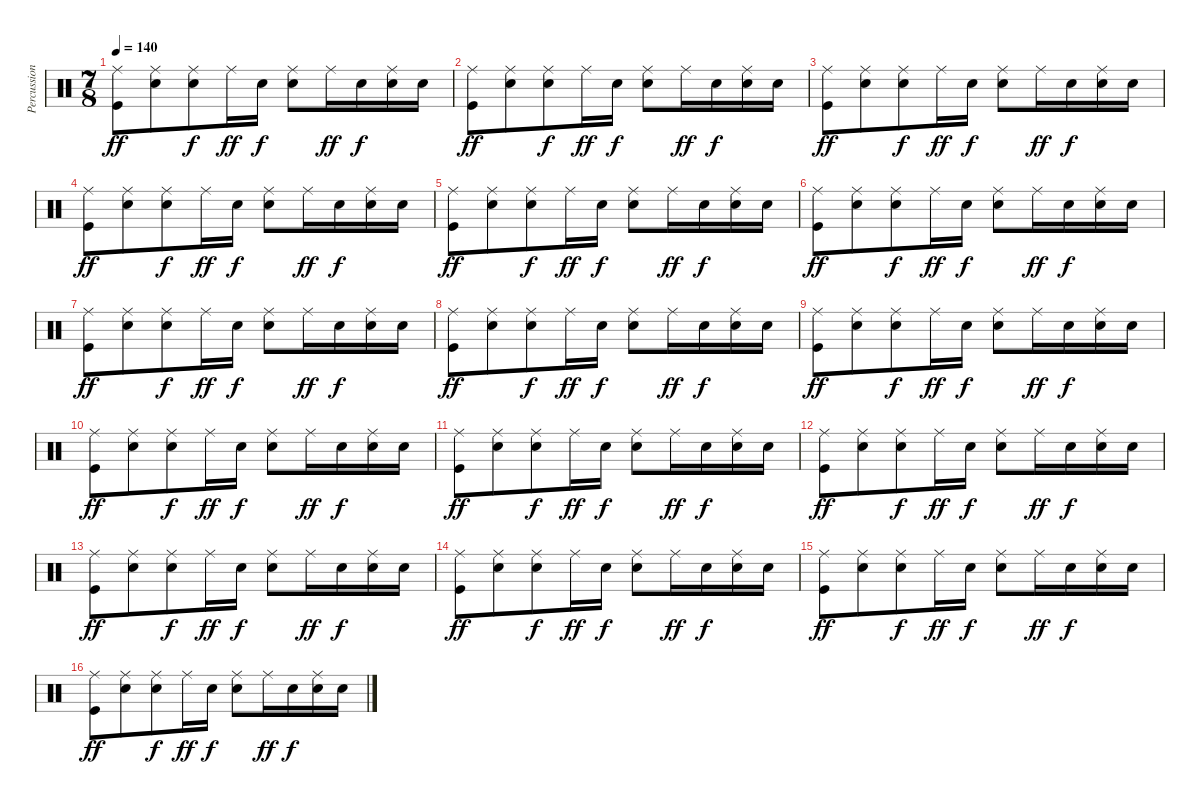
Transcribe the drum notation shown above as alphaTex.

\track ("Percussion" "Percussion") {instrument percussion}
\staff {score}
\articulation defaults
\ts (7 8)
\tempo 140
\clef neutral
\ks c
("Ride (middle)" "Kick (hit)").8{dy ff} ("Ride (middle)" "Electric Snare (hit)").8 ("Ride (middle)" "Electric Snare (hit)").8{dy f} "Ride (middle)".16{dy ff} "Electric Snare (hit)".16{dy f} ("Ride (middle)" "Electric Snare (hit)").8 "Ride (middle)".16{dy ff} "Electric Snare (hit)".16{dy f} ("Ride (middle)" "Electric Snare (hit)").16 "Electric Snare (hit)".16 |
("Ride (middle)" "Kick (hit)").8{dy ff} ("Ride (middle)" "Electric Snare (hit)").8 ("Ride (middle)" "Electric Snare (hit)").8{dy f} "Ride (middle)".16{dy ff} "Electric Snare (hit)".16{dy f} ("Ride (middle)" "Electric Snare (hit)").8 "Ride (middle)".16{dy ff} "Electric Snare (hit)".16{dy f} ("Ride (middle)" "Electric Snare (hit)").16 "Electric Snare (hit)".16 |
("Ride (middle)" "Kick (hit)").8{dy ff} ("Ride (middle)" "Electric Snare (hit)").8 ("Ride (middle)" "Electric Snare (hit)").8{dy f} "Ride (middle)".16{dy ff} "Electric Snare (hit)".16{dy f} ("Ride (middle)" "Electric Snare (hit)").8 "Ride (middle)".16{dy ff} "Electric Snare (hit)".16{dy f} ("Ride (middle)" "Electric Snare (hit)").16 "Electric Snare (hit)".16 |
("Ride (middle)" "Kick (hit)").8{dy ff} ("Ride (middle)" "Electric Snare (hit)").8 ("Ride (middle)" "Electric Snare (hit)").8{dy f} "Ride (middle)".16{dy ff} "Electric Snare (hit)".16{dy f} ("Ride (middle)" "Electric Snare (hit)").8 "Ride (middle)".16{dy ff} "Electric Snare (hit)".16{dy f} ("Ride (middle)" "Electric Snare (hit)").16 "Electric Snare (hit)".16 |
("Ride (middle)" "Kick (hit)").8{dy ff} ("Ride (middle)" "Electric Snare (hit)").8 ("Ride (middle)" "Electric Snare (hit)").8{dy f} "Ride (middle)".16{dy ff} "Electric Snare (hit)".16{dy f} ("Ride (middle)" "Electric Snare (hit)").8 "Ride (middle)".16{dy ff} "Electric Snare (hit)".16{dy f} ("Ride (middle)" "Electric Snare (hit)").16 "Electric Snare (hit)".16 |
("Ride (middle)" "Kick (hit)").8{dy ff} ("Ride (middle)" "Electric Snare (hit)").8 ("Ride (middle)" "Electric Snare (hit)").8{dy f} "Ride (middle)".16{dy ff} "Electric Snare (hit)".16{dy f} ("Ride (middle)" "Electric Snare (hit)").8 "Ride (middle)".16{dy ff} "Electric Snare (hit)".16{dy f} ("Ride (middle)" "Electric Snare (hit)").16 "Electric Snare (hit)".16 |
("Ride (middle)" "Kick (hit)").8{dy ff} ("Ride (middle)" "Electric Snare (hit)").8 ("Ride (middle)" "Electric Snare (hit)").8{dy f} "Ride (middle)".16{dy ff} "Electric Snare (hit)".16{dy f} ("Ride (middle)" "Electric Snare (hit)").8 "Ride (middle)".16{dy ff} "Electric Snare (hit)".16{dy f} ("Ride (middle)" "Electric Snare (hit)").16 "Electric Snare (hit)".16 |
("Ride (middle)" "Kick (hit)").8{dy ff} ("Ride (middle)" "Electric Snare (hit)").8 ("Ride (middle)" "Electric Snare (hit)").8{dy f} "Ride (middle)".16{dy ff} "Electric Snare (hit)".16{dy f} ("Ride (middle)" "Electric Snare (hit)").8 "Ride (middle)".16{dy ff} "Electric Snare (hit)".16{dy f} ("Ride (middle)" "Electric Snare (hit)").16 "Electric Snare (hit)".16 |
("Ride (middle)" "Kick (hit)").8{dy ff} ("Ride (middle)" "Electric Snare (hit)").8 ("Ride (middle)" "Electric Snare (hit)").8{dy f} "Ride (middle)".16{dy ff} "Electric Snare (hit)".16{dy f} ("Ride (middle)" "Electric Snare (hit)").8 "Ride (middle)".16{dy ff} "Electric Snare (hit)".16{dy f} ("Ride (middle)" "Electric Snare (hit)").16 "Electric Snare (hit)".16 |
("Ride (middle)" "Kick (hit)").8{dy ff} ("Ride (middle)" "Electric Snare (hit)").8 ("Ride (middle)" "Electric Snare (hit)").8{dy f} "Ride (middle)".16{dy ff} "Electric Snare (hit)".16{dy f} ("Ride (middle)" "Electric Snare (hit)").8 "Ride (middle)".16{dy ff} "Electric Snare (hit)".16{dy f} ("Ride (middle)" "Electric Snare (hit)").16 "Electric Snare (hit)".16 |
("Ride (middle)" "Kick (hit)").8{dy ff} ("Ride (middle)" "Electric Snare (hit)").8 ("Ride (middle)" "Electric Snare (hit)").8{dy f} "Ride (middle)".16{dy ff} "Electric Snare (hit)".16{dy f} ("Ride (middle)" "Electric Snare (hit)").8 "Ride (middle)".16{dy ff} "Electric Snare (hit)".16{dy f} ("Ride (middle)" "Electric Snare (hit)").16 "Electric Snare (hit)".16 |
("Ride (middle)" "Kick (hit)").8{dy ff} ("Ride (middle)" "Electric Snare (hit)").8 ("Ride (middle)" "Electric Snare (hit)").8{dy f} "Ride (middle)".16{dy ff} "Electric Snare (hit)".16{dy f} ("Ride (middle)" "Electric Snare (hit)").8 "Ride (middle)".16{dy ff} "Electric Snare (hit)".16{dy f} ("Ride (middle)" "Electric Snare (hit)").16 "Electric Snare (hit)".16 |
("Ride (middle)" "Kick (hit)").8{dy ff} ("Ride (middle)" "Electric Snare (hit)").8 ("Ride (middle)" "Electric Snare (hit)").8{dy f} "Ride (middle)".16{dy ff} "Electric Snare (hit)".16{dy f} ("Ride (middle)" "Electric Snare (hit)").8 "Ride (middle)".16{dy ff} "Electric Snare (hit)".16{dy f} ("Ride (middle)" "Electric Snare (hit)").16 "Electric Snare (hit)".16 |
("Ride (middle)" "Kick (hit)").8{dy ff} ("Ride (middle)" "Electric Snare (hit)").8 ("Ride (middle)" "Electric Snare (hit)").8{dy f} "Ride (middle)".16{dy ff} "Electric Snare (hit)".16{dy f} ("Ride (middle)" "Electric Snare (hit)").8 "Ride (middle)".16{dy ff} "Electric Snare (hit)".16{dy f} ("Ride (middle)" "Electric Snare (hit)").16 "Electric Snare (hit)".16 |
("Ride (middle)" "Kick (hit)").8{dy ff} ("Ride (middle)" "Electric Snare (hit)").8 ("Ride (middle)" "Electric Snare (hit)").8{dy f} "Ride (middle)".16{dy ff} "Electric Snare (hit)".16{dy f} ("Ride (middle)" "Electric Snare (hit)").8 "Ride (middle)".16{dy ff} "Electric Snare (hit)".16{dy f} ("Ride (middle)" "Electric Snare (hit)").16 "Electric Snare (hit)".16 |
("Ride (middle)" "Kick (hit)").8{dy ff} ("Ride (middle)" "Electric Snare (hit)").8 ("Ride (middle)" "Electric Snare (hit)").8{dy f} "Ride (middle)".16{dy ff} "Electric Snare (hit)".16{dy f} ("Ride (middle)" "Electric Snare (hit)").8 "Ride (middle)".16{dy ff} "Electric Snare (hit)".16{dy f} ("Ride (middle)" "Electric Snare (hit)").16 "Electric Snare (hit)".16
